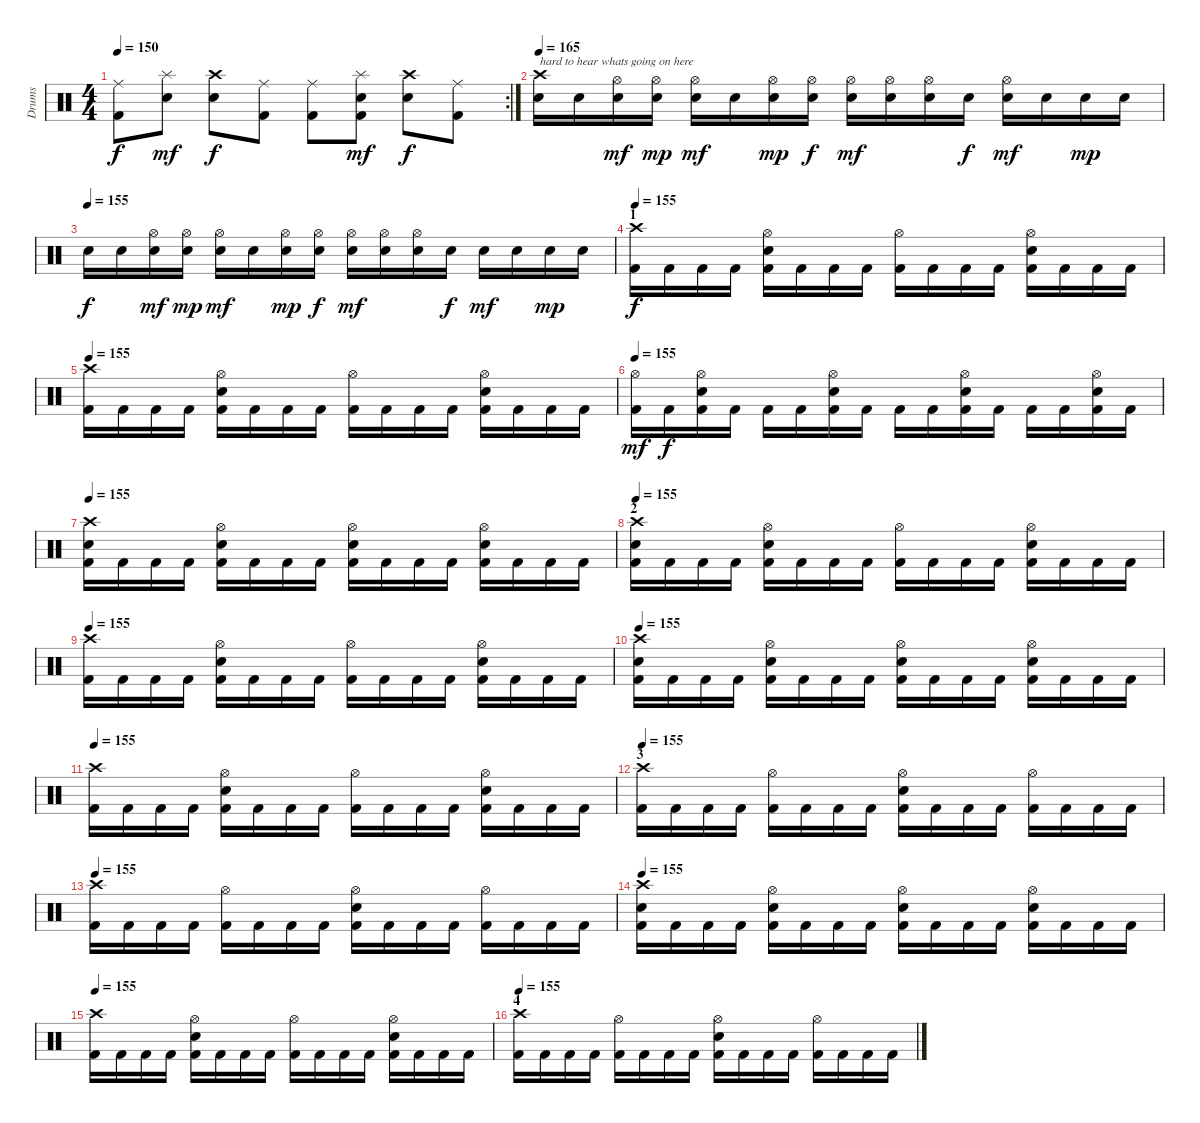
\track ("Drums" "Drums") {instrument percussion}
\staff {score}
\articulation defaults
\rc 2
\ts (4 4)
\tempo 150
\clef neutral
\ks c
("Ride (middle)" "Kick (hit) 2").8{dy f} ("Splash (hit)" "Electric Snare (hit)").8{dy mf} ("Crash high (hit)" "Electric Snare (hit)").8{dy f} ("Ride (middle)" "Kick (hit) 2").8 ("Ride (middle)" "Kick (hit) 2").8 ("Splash (hit)" "Electric Snare (hit)" "Kick (hit) 2").8{dy mf} ("Crash high (hit)" "Electric Snare (hit)").8{dy f} ("Ride (middle)" "Kick (hit) 2").8 |
\tempo 155
\tempo 165
("Crash high (hit)" "Snare (hit) 2").16{txt "hard to hear whats going on here"} "Snare (hit) 2".16 ("Hi-Hat (open)" "Snare (hit) 2").16{dy mf} ("Hi-Hat (open)" "Snare (hit) 2").16{dy mp} ("Hi-Hat (open)" "Snare (hit) 2").16{dy mf} "Snare (hit) 2".16 ("Hi-Hat (open)" "Snare (hit) 2").16{dy mp} ("Hi-Hat (open)" "Snare (hit) 2").16{dy f} ("Hi-Hat (open)" "Snare (hit) 2").16{dy mf} ("Hi-Hat (open)" "Snare (hit) 2").16 ("Hi-Hat (open)" "Snare (hit) 2").16 "Snare (hit) 2".16{dy f} ("Hi-Hat (open)" "Snare (hit) 2").16{dy mf} "Snare (hit) 2".16 "Snare (hit) 2".16{dy mp} "Snare (hit) 2".16 |
\tempo (155)
"Snare (hit) 2".16{dy f} "Snare (hit) 2".16 ("Hi-Hat (open)" "Snare (hit) 2").16{dy mf} ("Hi-Hat (open)" "Snare (hit) 2").16{dy mp} ("Hi-Hat (open)" "Snare (hit) 2").16{dy mf} "Snare (hit) 2".16 ("Hi-Hat (open)" "Snare (hit) 2").16{dy mp} ("Hi-Hat (open)" "Snare (hit) 2").16{dy f} ("Hi-Hat (open)" "Snare (hit) 2").16{dy mf} ("Hi-Hat (open)" "Snare (hit) 2").16 ("Hi-Hat (open)" "Snare (hit) 2").16 "Snare (hit) 2".16{dy f} "Snare (hit) 2".16{dy mf} "Snare (hit) 2".16 "Snare (hit) 2".16{dy mp} "Snare (hit) 2".16 |
\section ("" "1")
\tempo 155
("Crash high (hit)" "Kick (hit) 2").16{dy f} "Kick (hit) 2".16 "Kick (hit) 2".16 "Kick (hit) 2".16 ("Hi-Hat (open)" "Electric Snare (hit)" "Kick (hit) 2").16 "Kick (hit) 2".16 "Kick (hit) 2".16 "Kick (hit) 2".16 ("Hi-Hat (open)" "Kick (hit) 2").16 "Kick (hit) 2".16 "Kick (hit) 2".16 "Kick (hit) 2".16 ("Hi-Hat (open)" "Electric Snare (hit)" "Kick (hit) 2").16 "Kick (hit) 2".16 "Kick (hit) 2".16 "Kick (hit) 2".16 |
\tempo 155
("Crash high (hit)" "Kick (hit) 2").16 "Kick (hit) 2".16 "Kick (hit) 2".16 "Kick (hit) 2".16 ("Hi-Hat (open)" "Electric Snare (hit)" "Kick (hit) 2").16 "Kick (hit) 2".16 "Kick (hit) 2".16 "Kick (hit) 2".16 ("Hi-Hat (open)" "Kick (hit) 2").16 "Kick (hit) 2".16 "Kick (hit) 2".16 "Kick (hit) 2".16 ("Hi-Hat (open)" "Electric Snare (hit)" "Kick (hit) 2").16 "Kick (hit) 2".16 "Kick (hit) 2".16 "Kick (hit) 2".16 |
\tempo 155
("Hi-Hat (open)" "Kick (hit) 2").16{dy mf} "Kick (hit) 2".16{dy f} ("Hi-Hat (open)" "Electric Snare (hit)" "Kick (hit) 2").16 "Kick (hit) 2".16 "Kick (hit) 2".16 "Kick (hit) 2".16 ("Hi-Hat (open)" "Electric Snare (hit)" "Kick (hit) 2").16 "Kick (hit) 2".16 "Kick (hit) 2".16 "Kick (hit) 2".16 ("Hi-Hat (open)" "Electric Snare (hit)" "Kick (hit) 2").16 "Kick (hit) 2".16 "Kick (hit) 2".16 "Kick (hit) 2".16 ("Hi-Hat (open)" "Electric Snare (hit)" "Kick (hit) 2").16 "Kick (hit) 2".16 |
\tempo 155
("Crash high (hit)" "Electric Snare (hit)" "Kick (hit) 2").16 "Kick (hit) 2".16 "Kick (hit) 2".16 "Kick (hit) 2".16 ("Hi-Hat (open)" "Electric Snare (hit)" "Kick (hit) 2").16 "Kick (hit) 2".16 "Kick (hit) 2".16 "Kick (hit) 2".16 ("Hi-Hat (open)" "Electric Snare (hit)" "Kick (hit) 2").16 "Kick (hit) 2".16 "Kick (hit) 2".16 "Kick (hit) 2".16 ("Hi-Hat (open)" "Electric Snare (hit)" "Kick (hit) 2").16 "Kick (hit) 2".16 "Kick (hit) 2".16 "Kick (hit) 2".16 |
\section ("" "2")
\tempo 155
("Crash high (hit)" "Electric Snare (hit)" "Kick (hit) 2").16 "Kick (hit) 2".16 "Kick (hit) 2".16 "Kick (hit) 2".16 ("Hi-Hat (open)" "Electric Snare (hit)" "Kick (hit) 2").16 "Kick (hit) 2".16 "Kick (hit) 2".16 "Kick (hit) 2".16 ("Hi-Hat (open)" "Kick (hit) 2").16 "Kick (hit) 2".16 "Kick (hit) 2".16 "Kick (hit) 2".16 ("Hi-Hat (open)" "Electric Snare (hit)" "Kick (hit) 2").16 "Kick (hit) 2".16 "Kick (hit) 2".16 "Kick (hit) 2".16 |
\tempo 155
("Crash high (hit)" "Kick (hit) 2").16 "Kick (hit) 2".16 "Kick (hit) 2".16 "Kick (hit) 2".16 ("Hi-Hat (open)" "Electric Snare (hit)" "Kick (hit) 2").16 "Kick (hit) 2".16 "Kick (hit) 2".16 "Kick (hit) 2".16 ("Hi-Hat (open)" "Kick (hit) 2").16 "Kick (hit) 2".16 "Kick (hit) 2".16 "Kick (hit) 2".16 ("Hi-Hat (open)" "Electric Snare (hit)" "Kick (hit) 2").16 "Kick (hit) 2".16 "Kick (hit) 2".16 "Kick (hit) 2".16 |
\tempo 155
("Crash high (hit)" "Electric Snare (hit)" "Kick (hit) 2").16 "Kick (hit) 2".16 "Kick (hit) 2".16 "Kick (hit) 2".16 ("Hi-Hat (open)" "Electric Snare (hit)" "Kick (hit) 2").16 "Kick (hit) 2".16 "Kick (hit) 2".16 "Kick (hit) 2".16 ("Hi-Hat (open)" "Electric Snare (hit)" "Kick (hit) 2").16 "Kick (hit) 2".16 "Kick (hit) 2".16 "Kick (hit) 2".16 ("Hi-Hat (open)" "Electric Snare (hit)" "Kick (hit) 2").16 "Kick (hit) 2".16 "Kick (hit) 2".16 "Kick (hit) 2".16 |
\tempo 155
("Crash high (hit)" "Kick (hit) 2").16 "Kick (hit) 2".16 "Kick (hit) 2".16 "Kick (hit) 2".16 ("Hi-Hat (open)" "Electric Snare (hit)" "Kick (hit) 2").16 "Kick (hit) 2".16 "Kick (hit) 2".16 "Kick (hit) 2".16 ("Hi-Hat (open)" "Kick (hit) 2").16 "Kick (hit) 2".16 "Kick (hit) 2".16 "Kick (hit) 2".16 ("Hi-Hat (open)" "Electric Snare (hit)" "Kick (hit) 2").16 "Kick (hit) 2".16 "Kick (hit) 2".16 "Kick (hit) 2".16 |
\section ("" "3")
\tempo 155
("Crash high (hit)" "Kick (hit) 2").16 "Kick (hit) 2".16 "Kick (hit) 2".16 "Kick (hit) 2".16 ("Hi-Hat (open)" "Kick (hit) 2").16 "Kick (hit) 2".16 "Kick (hit) 2".16 "Kick (hit) 2".16 ("Hi-Hat (open)" "Electric Snare (hit)" "Kick (hit) 2").16 "Kick (hit) 2".16 "Kick (hit) 2".16 "Kick (hit) 2".16 ("Hi-Hat (open)" "Kick (hit) 2").16 "Kick (hit) 2".16 "Kick (hit) 2".16 "Kick (hit) 2".16 |
\tempo 155
("Crash high (hit)" "Kick (hit) 2").16 "Kick (hit) 2".16 "Kick (hit) 2".16 "Kick (hit) 2".16 ("Hi-Hat (open)" "Kick (hit) 2").16 "Kick (hit) 2".16 "Kick (hit) 2".16 "Kick (hit) 2".16 ("Hi-Hat (open)" "Electric Snare (hit)" "Kick (hit) 2").16 "Kick (hit) 2".16 "Kick (hit) 2".16 "Kick (hit) 2".16 ("Hi-Hat (open)" "Kick (hit) 2").16 "Kick (hit) 2".16 "Kick (hit) 2".16 "Kick (hit) 2".16 |
\tempo 155
("Crash high (hit)" "Electric Snare (hit)" "Kick (hit) 2").16 "Kick (hit) 2".16 "Kick (hit) 2".16 "Kick (hit) 2".16 ("Hi-Hat (open)" "Electric Snare (hit)" "Kick (hit) 2").16 "Kick (hit) 2".16 "Kick (hit) 2".16 "Kick (hit) 2".16 ("Hi-Hat (open)" "Electric Snare (hit)" "Kick (hit) 2").16 "Kick (hit) 2".16 "Kick (hit) 2".16 "Kick (hit) 2".16 ("Hi-Hat (open)" "Electric Snare (hit)" "Kick (hit) 2").16 "Kick (hit) 2".16 "Kick (hit) 2".16 "Kick (hit) 2".16 |
\tempo 155
("Crash high (hit)" "Kick (hit) 2").16 "Kick (hit) 2".16 "Kick (hit) 2".16 "Kick (hit) 2".16 ("Hi-Hat (open)" "Electric Snare (hit)" "Kick (hit) 2").16 "Kick (hit) 2".16 "Kick (hit) 2".16 "Kick (hit) 2".16 ("Hi-Hat (open)" "Kick (hit) 2").16 "Kick (hit) 2".16 "Kick (hit) 2".16 "Kick (hit) 2".16 ("Hi-Hat (open)" "Electric Snare (hit)" "Kick (hit) 2").16 "Kick (hit) 2".16 "Kick (hit) 2".16 "Kick (hit) 2".16 |
\section ("" "4")
\tempo 155
("Crash high (hit)" "Kick (hit) 2").16 "Kick (hit) 2".16 "Kick (hit) 2".16 "Kick (hit) 2".16 ("Hi-Hat (open)" "Kick (hit) 2").16 "Kick (hit) 2".16 "Kick (hit) 2".16 "Kick (hit) 2".16 ("Hi-Hat (open)" "Electric Snare (hit)" "Kick (hit) 2").16 "Kick (hit) 2".16 "Kick (hit) 2".16 "Kick (hit) 2".16 ("Hi-Hat (open)" "Kick (hit) 2").16 "Kick (hit) 2".16 "Kick (hit) 2".16 "Kick (hit) 2".16
